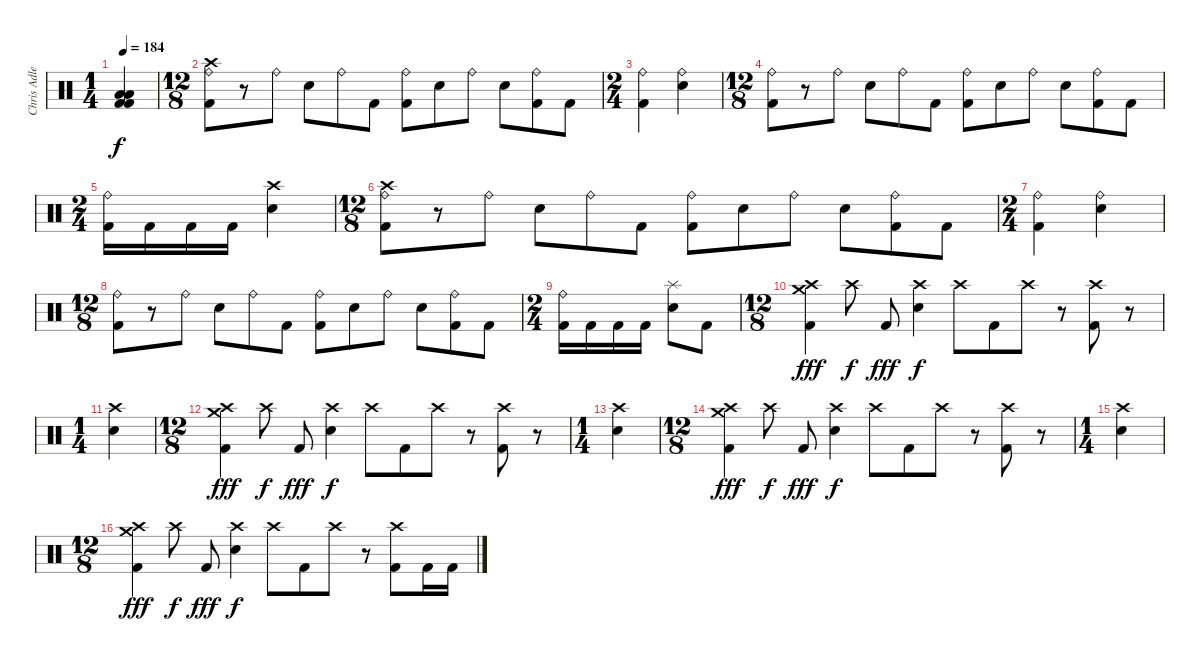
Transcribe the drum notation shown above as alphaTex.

\track ("Chris Adler" "Chris Adle") {instrument percussion}
\staff {score}
\articulation defaults
\ts (1 4)
\tempo 184
\clef neutral
\ks c
("Low Floor Tom (hit)" "Low Floor Tom (hit)" "Kick (hit) 2" "Kick (hit) 2").4{dy f} |
\ts (12 8)
("Crash high (hit)" "Ride (bell)" "Kick (hit) 2").8 r.8 "Ride (bell)".8 "Electric Snare (hit)".8 "Ride (bell)".8 "Kick (hit) 2".8 ("Ride (bell)" "Kick (hit) 2").8 "Electric Snare (hit)".8 "Ride (bell)".8 "Electric Snare (hit)".8 ("Ride (bell)" "Kick (hit) 2").8 "Kick (hit) 2".8 |
\ts (2 4)
("Ride (bell)" "Kick (hit) 2").4 ("Ride (bell)" "Electric Snare (hit)").4 |
\ts (12 8)
("Ride (bell)" "Kick (hit) 2").8 r.8 "Ride (bell)".8 "Electric Snare (hit)".8 "Ride (bell)".8 "Kick (hit) 2".8 ("Ride (bell)" "Kick (hit) 2").8 "Electric Snare (hit)".8 "Ride (bell)".8 "Electric Snare (hit)".8 ("Ride (bell)" "Kick (hit) 2").8 "Kick (hit) 2".8 |
\ts (2 4)
("Ride (bell)" "Kick (hit) 2").16 "Kick (hit) 2".16 "Kick (hit) 2".16 "Kick (hit) 2".16 ("Crash high (hit)" "Electric Snare (hit)").4 |
\ts (12 8)
("Crash high (hit)" "Ride (bell)" "Kick (hit) 2").8 r.8 "Ride (bell)".8 "Electric Snare (hit)".8 "Ride (bell)".8 "Kick (hit) 2".8 ("Ride (bell)" "Kick (hit) 2").8 "Electric Snare (hit)".8 "Ride (bell)".8 "Electric Snare (hit)".8 ("Ride (bell)" "Kick (hit) 2").8 "Kick (hit) 2".8 |
\ts (2 4)
("Ride (bell)" "Kick (hit) 2").4 ("Ride (bell)" "Electric Snare (hit)").4 |
\ts (12 8)
("Ride (bell)" "Kick (hit) 2").8 r.8 "Ride (bell)".8 "Electric Snare (hit)".8 "Ride (bell)".8 "Kick (hit) 2".8 ("Ride (bell)" "Kick (hit) 2").8 "Electric Snare (hit)".8 "Ride (bell)".8 "Electric Snare (hit)".8 ("Ride (bell)" "Kick (hit) 2").8 "Kick (hit) 2".8 |
\ts (2 4)
("Ride (bell)" "Kick (hit) 2").16 "Kick (hit) 2".16 "Kick (hit) 2".16 "Kick (hit) 2".16 ("Splash (hit)" "Electric Snare (hit)").8 "Kick (hit) 2".8 |
\ts (12 8)
("Crash high (hit)" "Crash medium (hit)" "Kick (hit) 2").4{dy fff} "Crash high (hit)".8{dy f} "Kick (hit) 2".8{dy fff} ("Crash high (hit)" "Electric Snare (hit)").4{dy f} "Crash high (hit)".8 "Kick (hit) 2".8 "Crash high (hit)".8 r.8 ("Crash high (hit)" "Kick (hit) 2").8 r.8 |
\ts (1 4)
("Crash high (hit)" "Electric Snare (hit)").4 |
\ts (12 8)
("Crash high (hit)" "Crash medium (hit)" "Kick (hit) 2").4{dy fff} "Crash high (hit)".8{dy f} "Kick (hit) 2".8{dy fff} ("Crash high (hit)" "Electric Snare (hit)").4{dy f} "Crash high (hit)".8 "Kick (hit) 2".8 "Crash high (hit)".8 r.8 ("Crash high (hit)" "Kick (hit) 2").8 r.8 |
\ts (1 4)
("Crash high (hit)" "Electric Snare (hit)").4 |
\ts (12 8)
("Crash high (hit)" "Crash medium (hit)" "Kick (hit) 2").4{dy fff} "Crash high (hit)".8{dy f} "Kick (hit) 2".8{dy fff} ("Crash high (hit)" "Electric Snare (hit)").4{dy f} "Crash high (hit)".8 "Kick (hit) 2".8 "Crash high (hit)".8 r.8 ("Crash high (hit)" "Kick (hit) 2").8 r.8 |
\ts (1 4)
("Crash high (hit)" "Electric Snare (hit)").4 |
\ts (12 8)
("Crash high (hit)" "Crash medium (hit)" "Kick (hit) 2").4{dy fff} "Crash high (hit)".8{dy f} "Kick (hit) 2".8{dy fff} ("Crash high (hit)" "Electric Snare (hit)").4{dy f} "Crash high (hit)".8 "Kick (hit) 2".8 "Crash high (hit)".8 r.8 ("Crash high (hit)" "Kick (hit) 2").8 "Kick (hit) 2".16 "Kick (hit) 2".16
